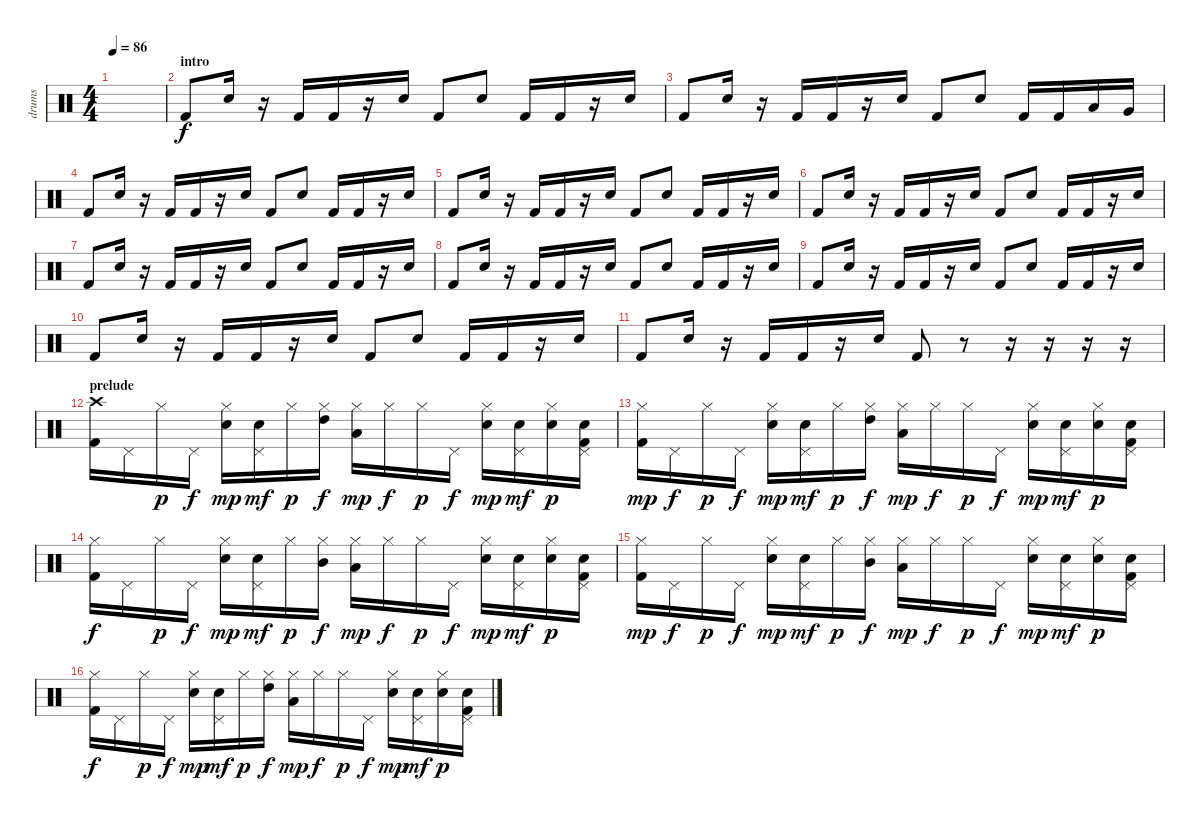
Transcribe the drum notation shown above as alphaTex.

\track ("drums" "drums") {instrument percussion}
\staff {score}
\articulation defaults
\ts (4 4)
\tempo 86
\clef neutral
\ks c
|
\section ("" "intro")
"Kick (hit) 2".8{volume 6} "Snare (hit) 2".16 r.16 "Kick (hit) 2".16 "Kick (hit) 2".16 r.16 "Snare (hit) 2".16 "Kick (hit) 2".8 "Snare (hit) 2".8 "Kick (hit) 2".16 "Kick (hit) 2".16 r.16 "Snare (hit) 2".16 |
"Kick (hit) 2".8 "Snare (hit) 2".16 r.16 "Kick (hit) 2".16 "Kick (hit) 2".16 r.16 "Snare (hit) 2".16 "Kick (hit) 2".8 "Snare (hit) 2".8 "Kick (hit) 2".16 "Kick (hit) 2".16 "Low Tom (hit)".16 "Very Low Tom (hit)".16 |
"Kick (hit) 2".8 "Snare (hit) 2".16 r.16 "Kick (hit) 2".16 "Kick (hit) 2".16 r.16 "Snare (hit) 2".16 "Kick (hit) 2".8 "Snare (hit) 2".8 "Kick (hit) 2".16 "Kick (hit) 2".16 r.16 "Snare (hit) 2".16 |
"Kick (hit) 2".8 "Snare (hit) 2".16 r.16 "Kick (hit) 2".16 "Kick (hit) 2".16 r.16 "Snare (hit) 2".16 "Kick (hit) 2".8 "Snare (hit) 2".8 "Kick (hit) 2".16 "Kick (hit) 2".16 r.16 "Snare (hit) 2".16 |
"Kick (hit) 2".8 "Snare (hit) 2".16 r.16 "Kick (hit) 2".16 "Kick (hit) 2".16 r.16 "Snare (hit) 2".16 "Kick (hit) 2".8 "Snare (hit) 2".8 "Kick (hit) 2".16 "Kick (hit) 2".16 r.16 "Snare (hit) 2".16 |
"Kick (hit) 2".8 "Snare (hit) 2".16 r.16 "Kick (hit) 2".16 "Kick (hit) 2".16 r.16 "Snare (hit) 2".16 "Kick (hit) 2".8 "Snare (hit) 2".8 "Kick (hit) 2".16 "Kick (hit) 2".16 r.16 "Snare (hit) 2".16 |
"Kick (hit) 2".8{volume 8} "Snare (hit) 2".16 r.16 "Kick (hit) 2".16 "Kick (hit) 2".16 r.16 "Snare (hit) 2".16 "Kick (hit) 2".8 "Snare (hit) 2".8 "Kick (hit) 2".16 "Kick (hit) 2".16 r.16 "Snare (hit) 2".16 |
"Kick (hit) 2".8 "Snare (hit) 2".16 r.16 "Kick (hit) 2".16 "Kick (hit) 2".16 r.16 "Snare (hit) 2".16 "Kick (hit) 2".8 "Snare (hit) 2".8 "Kick (hit) 2".16 "Kick (hit) 2".16 r.16 "Snare (hit) 2".16 |
"Kick (hit) 2".8 "Snare (hit) 2".16 r.16 "Kick (hit) 2".16 "Kick (hit) 2".16 r.16 "Snare (hit) 2".16 "Kick (hit) 2".8 "Snare (hit) 2".8 "Kick (hit) 2".16 "Kick (hit) 2".16 r.16 "Snare (hit) 2".16 |
"Kick (hit) 2".8 "Snare (hit) 2".16 r.16 "Kick (hit) 2".16 "Kick (hit) 2".16 r.16 "Snare (hit) 2".16 "Kick (hit) 2".8 r.8 r.16 r.16 r.16 r.16 |
\section ("" "prelude")
("Kick (hit) 2" "Crash high (hit)").16{volume 12} "Pedal Hi-Hat (hit)".16 "Hi-Hat (closed)".16{dy p} "Pedal Hi-Hat (hit)".16{dy f} ("Snare (hit) 2" "Hi-Hat (closed)").16{dy mp} ("Snare (hit) 2" "Pedal Hi-Hat (hit)").16{dy mf} "Hi-Hat (closed)".16{dy p} ("High Tom (hit)" "Hi-Hat (closed)").16{dy f} ("Low Tom (hit)" "Hi-Hat (closed)").16{dy mp} "Hi-Hat (closed)".16{dy f} "Hi-Hat (closed)".16{dy p} "Pedal Hi-Hat (hit)".16{dy f} ("Snare (hit) 2" "Hi-Hat (closed)").16{dy mp} ("Snare (hit) 2" "Pedal Hi-Hat (hit)").16{dy mf} ("Snare (hit) 2" "Hi-Hat (closed)").16{dy p} ("Kick (hit) 2" "Snare (hit) 2" "Pedal Hi-Hat (hit)").16 |
("Kick (hit) 2" "Hi-Hat (closed)").16{dy mp} "Pedal Hi-Hat (hit)".16{dy f} "Hi-Hat (closed)".16{dy p} "Pedal Hi-Hat (hit)".16{dy f} ("Snare (hit) 2" "Hi-Hat (closed)").16{dy mp} ("Snare (hit) 2" "Pedal Hi-Hat (hit)").16{dy mf} "Hi-Hat (closed)".16{dy p} ("High Tom (hit)" "Hi-Hat (closed)").16{dy f} ("Low Tom (hit)" "Hi-Hat (closed)").16{dy mp} "Hi-Hat (closed)".16{dy f} "Hi-Hat (closed)".16{dy p} "Pedal Hi-Hat (hit)".16{dy f} ("Snare (hit) 2" "Hi-Hat (closed)").16{dy mp} ("Snare (hit) 2" "Pedal Hi-Hat (hit)").16{dy mf} ("Snare (hit) 2" "Hi-Hat (closed)").16{dy p} ("Kick (hit) 2" "Snare (hit) 2" "Pedal Hi-Hat (hit)").16 |
("Kick (hit) 2" "Hi-Hat (closed)").16{dy f} "Pedal Hi-Hat (hit)".16 "Hi-Hat (closed)".16{dy p} "Pedal Hi-Hat (hit)".16{dy f} ("Snare (hit) 2" "Hi-Hat (closed)").16{dy mp} ("Snare (hit) 2" "Pedal Hi-Hat (hit)").16{dy mf} "Hi-Hat (closed)".16{dy p} ("Mid Tom (hit)" "Hi-Hat (closed)").16{dy f} ("Low Tom (hit)" "Hi-Hat (closed)").16{dy mp} "Hi-Hat (closed)".16{dy f} "Hi-Hat (closed)".16{dy p} "Pedal Hi-Hat (hit)".16{dy f} ("Snare (hit) 2" "Hi-Hat (closed)").16{dy mp} ("Snare (hit) 2" "Pedal Hi-Hat (hit)").16{dy mf} ("Snare (hit) 2" "Hi-Hat (closed)").16{dy p} ("Kick (hit) 2" "Snare (hit) 2" "Pedal Hi-Hat (hit)").16 |
("Kick (hit) 2" "Hi-Hat (closed)").16{dy mp} "Pedal Hi-Hat (hit)".16{dy f} "Hi-Hat (closed)".16{dy p} "Pedal Hi-Hat (hit)".16{dy f} ("Snare (hit) 2" "Hi-Hat (closed)").16{dy mp} ("Snare (hit) 2" "Pedal Hi-Hat (hit)").16{dy mf} "Hi-Hat (closed)".16{dy p} ("Mid Tom (hit)" "Hi-Hat (closed)").16{dy f} ("Low Tom (hit)" "Hi-Hat (closed)").16{dy mp} "Hi-Hat (closed)".16{dy f} "Hi-Hat (closed)".16{dy p} "Pedal Hi-Hat (hit)".16{dy f} ("Snare (hit) 2" "Hi-Hat (closed)").16{dy mp} ("Snare (hit) 2" "Pedal Hi-Hat (hit)").16{dy mf} ("Snare (hit) 2" "Hi-Hat (closed)").16{dy p} ("Kick (hit) 2" "Snare (hit) 2" "Pedal Hi-Hat (hit)").16 |
("Kick (hit) 2" "Hi-Hat (closed)").16{dy f} "Pedal Hi-Hat (hit)".16 "Hi-Hat (closed)".16{dy p} "Pedal Hi-Hat (hit)".16{dy f} ("Snare (hit) 2" "Hi-Hat (closed)").16{dy mp} ("Snare (hit) 2" "Pedal Hi-Hat (hit)").16{dy mf} "Hi-Hat (closed)".16{dy p} ("High Tom (hit)" "Hi-Hat (closed)").16{dy f} ("Low Tom (hit)" "Hi-Hat (closed)").16{dy mp} "Hi-Hat (closed)".16{dy f} "Hi-Hat (closed)".16{dy p} "Pedal Hi-Hat (hit)".16{dy f} ("Snare (hit) 2" "Hi-Hat (closed)").16{dy mp} ("Snare (hit) 2" "Pedal Hi-Hat (hit)").16{dy mf} ("Snare (hit) 2" "Hi-Hat (closed)").16{dy p} ("Kick (hit) 2" "Snare (hit) 2" "Pedal Hi-Hat (hit)").16
